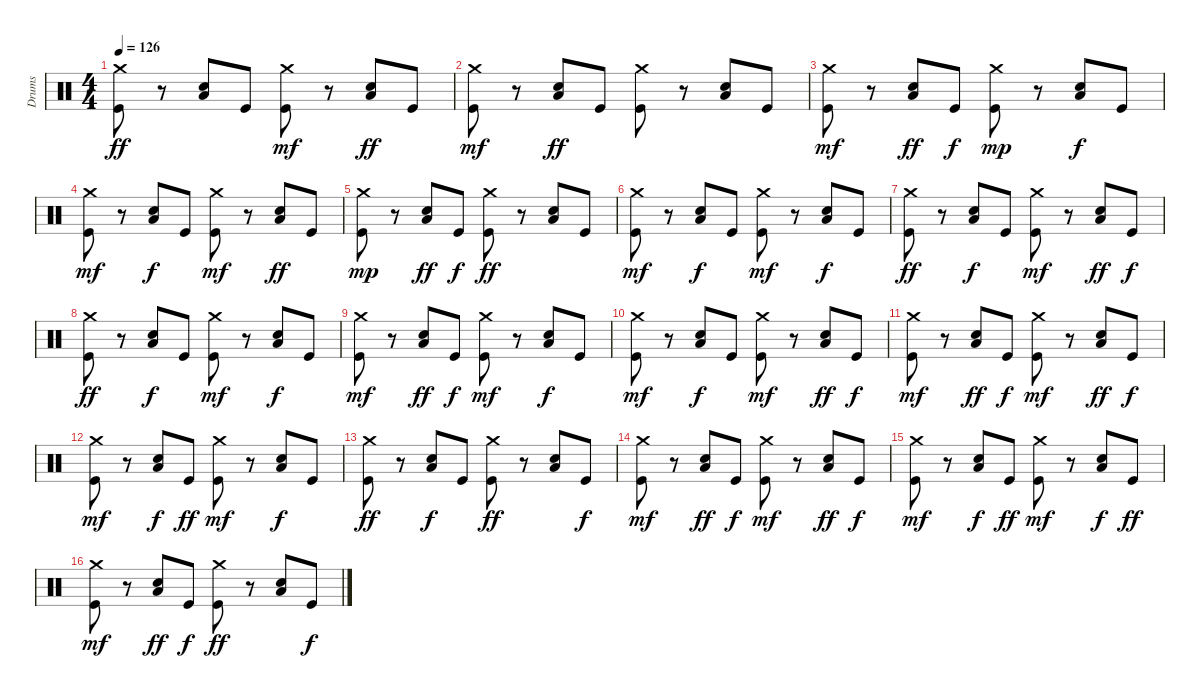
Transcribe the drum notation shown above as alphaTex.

\track ("Drums" "Drums") {instrument percussion}
\staff {score}
\articulation defaults
\ts (4 4)
\tempo 126
\clef neutral
\ks c
("Crash medium (hit)" "Kick (hit)").8{dy ff} r.8 ("Electric Snare (hit)" "Low Tom (hit)").8 "Kick (hit)".8 ("Kick (hit)" "Crash medium (hit)").8{dy mf} r.8 ("Low Tom (hit)" "Electric Snare (hit)").8{dy ff} "Kick (hit)".8 |
("Crash medium (hit)" "Kick (hit)").8{dy mf} r.8 ("Low Tom (hit)" "Electric Snare (hit)").8{dy ff} "Kick (hit)".8 ("Crash medium (hit)" "Kick (hit)").8 r.8 ("Electric Snare (hit)" "Low Tom (hit)").8 "Kick (hit)".8 |
("Crash medium (hit)" "Kick (hit)").8{dy mf} r.8 ("Low Tom (hit)" "Electric Snare (hit)").8{dy ff} "Kick (hit)".8{dy f} ("Crash medium (hit)" "Kick (hit)").8{dy mp} r.8 ("Electric Snare (hit)" "Low Tom (hit)").8{dy f} "Kick (hit)".8 |
("Kick (hit)" "Crash medium (hit)").8{dy mf} r.8 ("Low Tom (hit)" "Electric Snare (hit)").8{dy f} "Kick (hit)".8 ("Crash medium (hit)" "Kick (hit)").8{dy mf} r.8 ("Low Tom (hit)" "Electric Snare (hit)").8{dy ff} "Kick (hit)".8 |
("Crash medium (hit)" "Kick (hit)").8{dy mp} r.8 ("Electric Snare (hit)" "Low Tom (hit)").8{dy ff} "Kick (hit)".8{dy f} ("Crash medium (hit)" "Kick (hit)").8{dy ff} r.8 ("Electric Snare (hit)" "Low Tom (hit)").8 "Kick (hit)".8 |
("Kick (hit)" "Crash medium (hit)").8{dy mf} r.8 ("Low Tom (hit)" "Electric Snare (hit)").8{dy f} "Kick (hit)".8 ("Crash medium (hit)" "Kick (hit)").8{dy mf} r.8 ("Low Tom (hit)" "Electric Snare (hit)").8{dy f} "Kick (hit)".8 |
("Crash medium (hit)" "Kick (hit)").8{dy ff} r.8 ("Electric Snare (hit)" "Low Tom (hit)").8{dy f} "Kick (hit)".8 ("Kick (hit)" "Crash medium (hit)").8{dy mf} r.8 ("Low Tom (hit)" "Electric Snare (hit)").8{dy ff} "Kick (hit)".8{dy f} |
("Crash medium (hit)" "Kick (hit)").8{dy ff} r.8 ("Electric Snare (hit)" "Low Tom (hit)").8{dy f} "Kick (hit)".8 ("Kick (hit)" "Crash medium (hit)").8{dy mf} r.8 ("Low Tom (hit)" "Electric Snare (hit)").8{dy f} "Kick (hit)".8 |
("Kick (hit)" "Crash medium (hit)").8{dy mf} r.8 ("Electric Snare (hit)" "Low Tom (hit)").8{dy ff} "Kick (hit)".8{dy f} ("Kick (hit)" "Crash medium (hit)").8{dy mf} r.8 ("Electric Snare (hit)" "Low Tom (hit)").8{dy f} "Kick (hit)".8 |
("Kick (hit)" "Crash medium (hit)").8{dy mf} r.8 ("Electric Snare (hit)" "Low Tom (hit)").8{dy f} "Kick (hit)".8 ("Crash medium (hit)" "Kick (hit)").8{dy mf} r.8 ("Low Tom (hit)" "Electric Snare (hit)").8{dy ff} "Kick (hit)".8{dy f} |
("Crash medium (hit)" "Kick (hit)").8{dy mf} r.8 ("Electric Snare (hit)" "Low Tom (hit)").8{dy ff} "Kick (hit)".8{dy f} ("Crash medium (hit)" "Kick (hit)").8{dy mf} r.8 ("Electric Snare (hit)" "Low Tom (hit)").8{dy ff} "Kick (hit)".8{dy f} |
("Kick (hit)" "Crash medium (hit)").8{dy mf volume 11} r.8 ("Low Tom (hit)" "Electric Snare (hit)").8{dy f} "Kick (hit)".8{dy ff} ("Crash medium (hit)" "Kick (hit)").8{dy mf} r.8 ("Electric Snare (hit)" "Low Tom (hit)").8{dy f} "Kick (hit)".8 |
("Crash medium (hit)" "Kick (hit)").8{dy ff volume 7} r.8 ("Low Tom (hit)" "Electric Snare (hit)").8{dy f} "Kick (hit)".8 ("Crash medium (hit)" "Kick (hit)").8{dy ff} r.8 ("Electric Snare (hit)" "Low Tom (hit)").8 "Kick (hit)".8{dy f} |
("Crash medium (hit)" "Kick (hit)").8{dy mf volume 7} r.8 ("Low Tom (hit)" "Electric Snare (hit)").8{dy ff} "Kick (hit)".8{dy f} ("Crash medium (hit)" "Kick (hit)").8{dy mf} r.8 ("Low Tom (hit)" "Electric Snare (hit)").8{dy ff} "Kick (hit)".8{dy f} |
("Crash medium (hit)" "Kick (hit)").8{dy mf} r.8 ("Low Tom (hit)" "Electric Snare (hit)").8{dy f} "Kick (hit)".8{dy ff} ("Crash medium (hit)" "Kick (hit)").8{dy mf volume 4} r.8 ("Low Tom (hit)" "Electric Snare (hit)").8{dy f} "Kick (hit)".8{dy ff} |
("Crash medium (hit)" "Kick (hit)").8{dy mf volume 2} r.8 ("Electric Snare (hit)" "Low Tom (hit)").8{dy ff} "Kick (hit)".8{dy f} ("Crash medium (hit)" "Kick (hit)").8{dy ff} r.8 ("Electric Snare (hit)" "Low Tom (hit)").8 "Kick (hit)".8{dy f}
